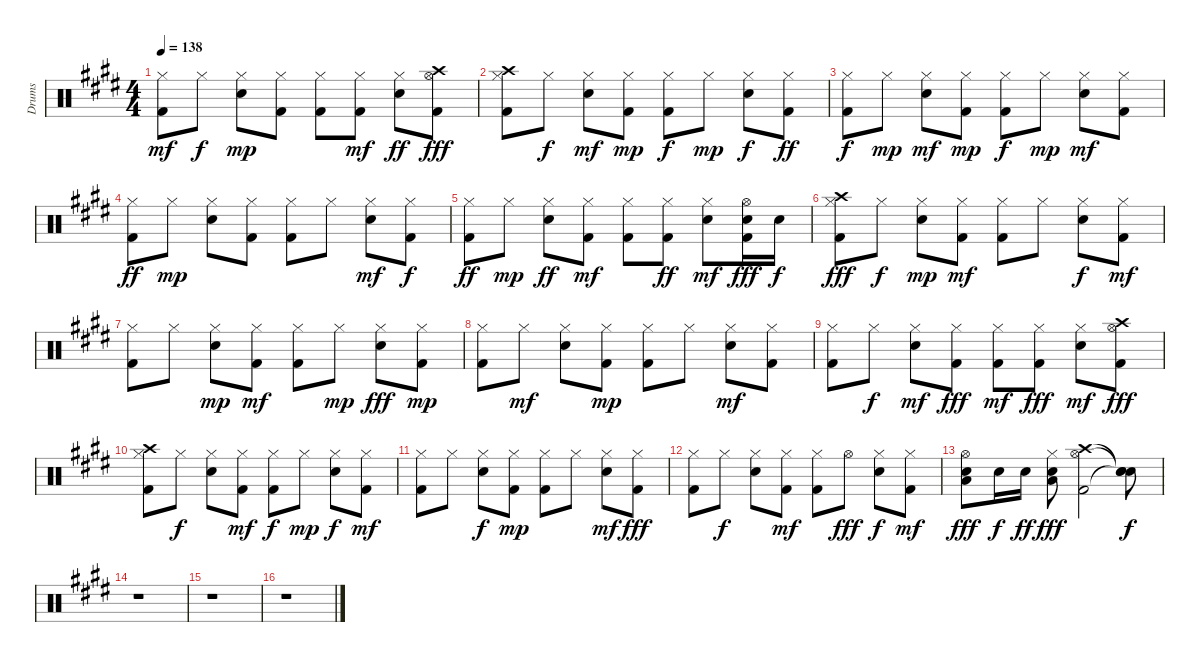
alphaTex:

\track ("Drums" "Drums") {instrument percussion}
\staff {score}
\articulation defaults
\ts (4 4)
\tempo 138
\clef neutral
\ks e
("Kick (hit) 2" "Hi-Hat (closed)").8{dy mf} "Hi-Hat (closed)".8{dy f} ("Snare (hit) 2" "Hi-Hat (closed)").8{dy mp} ("Kick (hit) 2" "Hi-Hat (closed)").8 ("Kick (hit) 2" "Hi-Hat (closed)").8 ("Kick (hit) 2" "Hi-Hat (closed)").8{dy mf} ("Snare (hit) 2" "Hi-Hat (closed)").8{dy ff} ("Kick (hit) 2" "Hi-Hat (open)" "Crash high (hit)").8{dy fff} |
("Kick (hit) 2" "Hi-Hat (closed)" "Crash high (hit)").8 "Hi-Hat (closed)".8{dy f} ("Snare (hit) 2" "Hi-Hat (closed)").8{dy mf} ("Kick (hit) 2" "Hi-Hat (closed)").8{dy mp} ("Kick (hit) 2" "Hi-Hat (closed)").8{dy f} "Hi-Hat (closed)".8{dy mp} ("Snare (hit) 2" "Hi-Hat (closed)").8{dy f} ("Kick (hit) 2" "Hi-Hat (closed)").8{dy ff} |
("Kick (hit) 2" "Hi-Hat (closed)").8{dy f} "Hi-Hat (closed)".8{dy mp} ("Snare (hit) 2" "Hi-Hat (closed)").8{dy mf} ("Kick (hit) 2" "Hi-Hat (closed)").8{dy mp} ("Kick (hit) 2" "Hi-Hat (closed)").8{dy f} "Hi-Hat (closed)".8{dy mp} ("Snare (hit) 2" "Hi-Hat (closed)").8{dy mf} ("Kick (hit) 2" "Hi-Hat (closed)").8 |
("Kick (hit) 2" "Hi-Hat (closed)").8{dy ff} "Hi-Hat (closed)".8{dy mp} ("Snare (hit) 2" "Hi-Hat (closed)").8 ("Kick (hit) 2" "Hi-Hat (closed)").8 ("Kick (hit) 2" "Hi-Hat (closed)").8 "Hi-Hat (closed)".8 ("Snare (hit) 2" "Hi-Hat (closed)").8{dy mf} ("Kick (hit) 2" "Hi-Hat (closed)").8{dy f} |
("Kick (hit) 2" "Hi-Hat (closed)").8{dy ff} "Hi-Hat (closed)".8{dy mp} ("Snare (hit) 2" "Hi-Hat (closed)").8{dy ff} ("Kick (hit) 2" "Hi-Hat (closed)").8{dy mf} ("Kick (hit) 2" "Hi-Hat (closed)").8 ("Kick (hit) 2" "Hi-Hat (closed)").8{dy ff} ("Snare (hit) 2" "Hi-Hat (closed)").8{dy mf} ("Kick (hit) 2" "Snare (hit) 2" "Hi-Hat (open)").16{dy fff} "Snare (hit) 2".16{dy f} |
("Kick (hit) 2" "Hi-Hat (closed)" "Crash high (hit)").8{dy fff} "Hi-Hat (closed)".8{dy f} ("Snare (hit) 2" "Hi-Hat (closed)").8{dy mp} ("Kick (hit) 2" "Hi-Hat (closed)").8{dy mf} ("Kick (hit) 2" "Hi-Hat (closed)").8 "Hi-Hat (closed)".8 ("Snare (hit) 2" "Hi-Hat (closed)").8{dy f} ("Kick (hit) 2" "Hi-Hat (closed)").8{dy mf} |
("Kick (hit) 2" "Hi-Hat (closed)").8 "Hi-Hat (closed)".8 ("Snare (hit) 2" "Hi-Hat (closed)").8{dy mp} ("Kick (hit) 2" "Hi-Hat (closed)").8{dy mf} ("Kick (hit) 2" "Hi-Hat (closed)").8 "Hi-Hat (closed)".8{dy mp} ("Snare (hit) 2" "Hi-Hat (closed)").8{dy fff} ("Kick (hit) 2" "Hi-Hat (closed)").8{dy mp} |
("Kick (hit) 2" "Hi-Hat (closed)").8 "Hi-Hat (closed)".8{dy mf} ("Snare (hit) 2" "Hi-Hat (closed)").8 ("Kick (hit) 2" "Hi-Hat (closed)").8{dy mp} ("Kick (hit) 2" "Hi-Hat (closed)").8 "Hi-Hat (closed)".8 ("Snare (hit) 2" "Hi-Hat (closed)").8{dy mf} ("Kick (hit) 2" "Hi-Hat (closed)").8 |
("Kick (hit) 2" "Hi-Hat (closed)").8 "Hi-Hat (closed)".8{dy f} ("Snare (hit) 2" "Hi-Hat (closed)").8{dy mf} ("Kick (hit) 2" "Hi-Hat (closed)").8{dy fff} ("Kick (hit) 2" "Hi-Hat (closed)").8{dy mf} ("Kick (hit) 2" "Hi-Hat (closed)").8{dy fff} ("Snare (hit) 2" "Hi-Hat (closed)").8{dy mf} ("Kick (hit) 2" "Hi-Hat (open)" "Crash high (hit)").8{dy fff} |
("Kick (hit) 2" "Hi-Hat (closed)" "Crash high (hit)").8 "Hi-Hat (closed)".8{dy f} ("Snare (hit) 2" "Hi-Hat (closed)").8 ("Kick (hit) 2" "Hi-Hat (closed)").8{dy mf} ("Kick (hit) 2" "Hi-Hat (closed)").8{dy f} "Hi-Hat (closed)".8{dy mp} ("Snare (hit) 2" "Hi-Hat (closed)").8{dy f} ("Kick (hit) 2" "Hi-Hat (closed)").8{dy mf} |
("Kick (hit) 2" "Hi-Hat (closed)").8 "Hi-Hat (closed)".8 ("Snare (hit) 2" "Hi-Hat (closed)").8{dy f} ("Kick (hit) 2" "Hi-Hat (closed)").8{dy mp} ("Kick (hit) 2" "Hi-Hat (closed)").8 "Hi-Hat (closed)".8 ("Snare (hit) 2" "Hi-Hat (closed)").8{dy mf} ("Kick (hit) 2" "Hi-Hat (closed)").8{dy fff} |
("Kick (hit) 2" "Hi-Hat (closed)").8 "Hi-Hat (closed)".8{dy f} ("Snare (hit) 2" "Hi-Hat (closed)").8 ("Kick (hit) 2" "Hi-Hat (closed)").8{dy mf} ("Kick (hit) 2" "Hi-Hat (closed)").8 "Hi-Hat (open)".8{dy fff} ("Snare (hit) 2" "Hi-Hat (closed)").8{dy f} ("Kick (hit) 2" "Hi-Hat (closed)").8{dy mf} |
("Snare (hit) 2" "Low Floor Tom (hit)" "Hi-Hat (open)").8{dy fff} "Snare (hit) 2".16{dy f} "Snare (hit) 2".16{dy ff} ("Snare (hit) 2" "Hi-Hat (closed)" "Low Tom (hit)").8{dy fff} ("Kick (hit) 2" "Hi-Hat (open)" "Crash high (hit)").2 ("Snare (hit)"{t} "Snare (hit)"{t} "Snare (hit)"{t}).8{dy f} |
r.1 |
r.1 |
r.1
